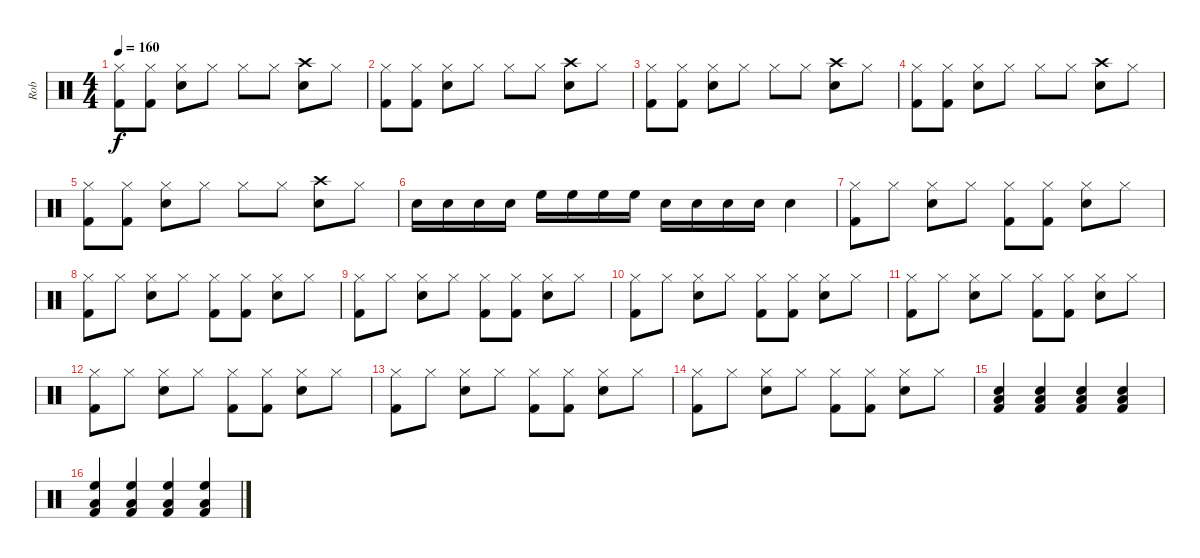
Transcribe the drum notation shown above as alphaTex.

\track ("Rob" "Rob") {instrument percussion}
\staff {score}
\articulation defaults
\ts (4 4)
\tempo 160
\clef neutral
\ks c
("Hi-Hat (closed)" "Kick (hit) 2").8{dy f} ("Hi-Hat (closed)" "Kick (hit) 2").8 ("Hi-Hat (closed)" "Electric Snare (hit)").8 "Hi-Hat (closed)".8 "Hi-Hat (closed)".8 "Hi-Hat (closed)".8 ("Crash high (hit)" "Electric Snare (hit)").8 "Hi-Hat (closed)".8 |
("Hi-Hat (closed)" "Kick (hit) 2").8 ("Hi-Hat (closed)" "Kick (hit) 2").8 ("Hi-Hat (closed)" "Electric Snare (hit)").8 "Hi-Hat (closed)".8 "Hi-Hat (closed)".8 "Hi-Hat (closed)".8 ("Crash high (hit)" "Electric Snare (hit)").8 "Hi-Hat (closed)".8 |
("Hi-Hat (closed)" "Kick (hit) 2").8 ("Hi-Hat (closed)" "Kick (hit) 2").8 ("Hi-Hat (closed)" "Electric Snare (hit)").8 "Hi-Hat (closed)".8 "Hi-Hat (closed)".8 "Hi-Hat (closed)".8 ("Crash high (hit)" "Electric Snare (hit)").8 "Hi-Hat (closed)".8 |
("Hi-Hat (closed)" "Kick (hit) 2").8 ("Hi-Hat (closed)" "Kick (hit) 2").8 ("Hi-Hat (closed)" "Electric Snare (hit)").8 "Hi-Hat (closed)".8 "Hi-Hat (closed)".8 "Hi-Hat (closed)".8 ("Crash high (hit)" "Electric Snare (hit)").8 "Hi-Hat (closed)".8 |
("Hi-Hat (closed)" "Kick (hit) 2").8 ("Hi-Hat (closed)" "Kick (hit) 2").8 ("Hi-Hat (closed)" "Electric Snare (hit)").8 "Hi-Hat (closed)".8 "Hi-Hat (closed)".8 "Hi-Hat (closed)".8 ("Crash high (hit)" "Electric Snare (hit)").8 "Hi-Hat (closed)".8 |
"Electric Snare (hit)".16 "Electric Snare (hit)".16 "Electric Snare (hit)".16 "Electric Snare (hit)".16 "High Floor Tom (hit)".16 "High Floor Tom (hit)".16 "High Floor Tom (hit)".16 "High Floor Tom (hit)".16 "Electric Snare (hit)".16 "Electric Snare (hit)".16 "Electric Snare (hit)".16 "Electric Snare (hit)".16 "Electric Snare (hit)".4 |
("Hi-Hat (closed)" "Kick (hit) 2").8 "Hi-Hat (closed)".8 ("Hi-Hat (closed)" "Electric Snare (hit)").8 "Hi-Hat (closed)".8 ("Hi-Hat (closed)" "Kick (hit) 2").8 ("Hi-Hat (closed)" "Kick (hit) 2").8 ("Hi-Hat (closed)" "Electric Snare (hit)").8 "Hi-Hat (closed)".8 |
("Hi-Hat (closed)" "Kick (hit) 2").8 "Hi-Hat (closed)".8 ("Hi-Hat (closed)" "Electric Snare (hit)").8 "Hi-Hat (closed)".8 ("Hi-Hat (closed)" "Kick (hit) 2").8 ("Hi-Hat (closed)" "Kick (hit) 2").8 ("Hi-Hat (closed)" "Electric Snare (hit)").8 "Hi-Hat (closed)".8 |
("Hi-Hat (closed)" "Kick (hit) 2").8 "Hi-Hat (closed)".8 ("Hi-Hat (closed)" "Electric Snare (hit)").8 "Hi-Hat (closed)".8 ("Hi-Hat (closed)" "Kick (hit) 2").8 ("Hi-Hat (closed)" "Kick (hit) 2").8 ("Hi-Hat (closed)" "Electric Snare (hit)").8 "Hi-Hat (closed)".8 |
("Hi-Hat (closed)" "Kick (hit) 2").8 "Hi-Hat (closed)".8 ("Hi-Hat (closed)" "Electric Snare (hit)").8 "Hi-Hat (closed)".8 ("Hi-Hat (closed)" "Kick (hit) 2").8 ("Hi-Hat (closed)" "Kick (hit) 2").8 ("Hi-Hat (closed)" "Electric Snare (hit)").8 "Hi-Hat (closed)".8 |
("Hi-Hat (closed)" "Kick (hit) 2").8 "Hi-Hat (closed)".8 ("Hi-Hat (closed)" "Electric Snare (hit)").8 "Hi-Hat (closed)".8 ("Hi-Hat (closed)" "Kick (hit) 2").8 ("Hi-Hat (closed)" "Kick (hit) 2").8 ("Hi-Hat (closed)" "Electric Snare (hit)").8 "Hi-Hat (closed)".8 |
("Hi-Hat (closed)" "Kick (hit) 2").8 "Hi-Hat (closed)".8 ("Hi-Hat (closed)" "Electric Snare (hit)").8 "Hi-Hat (closed)".8 ("Hi-Hat (closed)" "Kick (hit) 2").8 ("Hi-Hat (closed)" "Kick (hit) 2").8 ("Hi-Hat (closed)" "Electric Snare (hit)").8 "Hi-Hat (closed)".8 |
("Hi-Hat (closed)" "Kick (hit) 2").8 "Hi-Hat (closed)".8 ("Hi-Hat (closed)" "Electric Snare (hit)").8 "Hi-Hat (closed)".8 ("Hi-Hat (closed)" "Kick (hit) 2").8 ("Hi-Hat (closed)" "Kick (hit) 2").8 ("Hi-Hat (closed)" "Electric Snare (hit)").8 "Hi-Hat (closed)".8 |
("Hi-Hat (closed)" "Kick (hit) 2").8 "Hi-Hat (closed)".8 ("Hi-Hat (closed)" "Electric Snare (hit)").8 "Hi-Hat (closed)".8 ("Hi-Hat (closed)" "Kick (hit) 2").8 ("Hi-Hat (closed)" "Kick (hit) 2").8 ("Hi-Hat (closed)" "Electric Snare (hit)").8 "Hi-Hat (closed)".8 |
("Electric Snare (hit)" "Low Tom (hit)" "Kick (hit) 2").4 ("Electric Snare (hit)" "Low Tom (hit)" "Kick (hit) 2").4 ("Electric Snare (hit)" "Low Tom (hit)" "Kick (hit) 2").4 ("Electric Snare (hit)" "Low Tom (hit)" "Kick (hit) 2").4 |
("High Floor Tom (hit)" "Low Tom (hit)" "Kick (hit) 2").4 ("High Floor Tom (hit)" "Low Tom (hit)" "Kick (hit) 2").4 ("High Floor Tom (hit)" "Low Tom (hit)" "Kick (hit) 2").4 ("High Floor Tom (hit)" "Low Tom (hit)" "Kick (hit) 2").4
